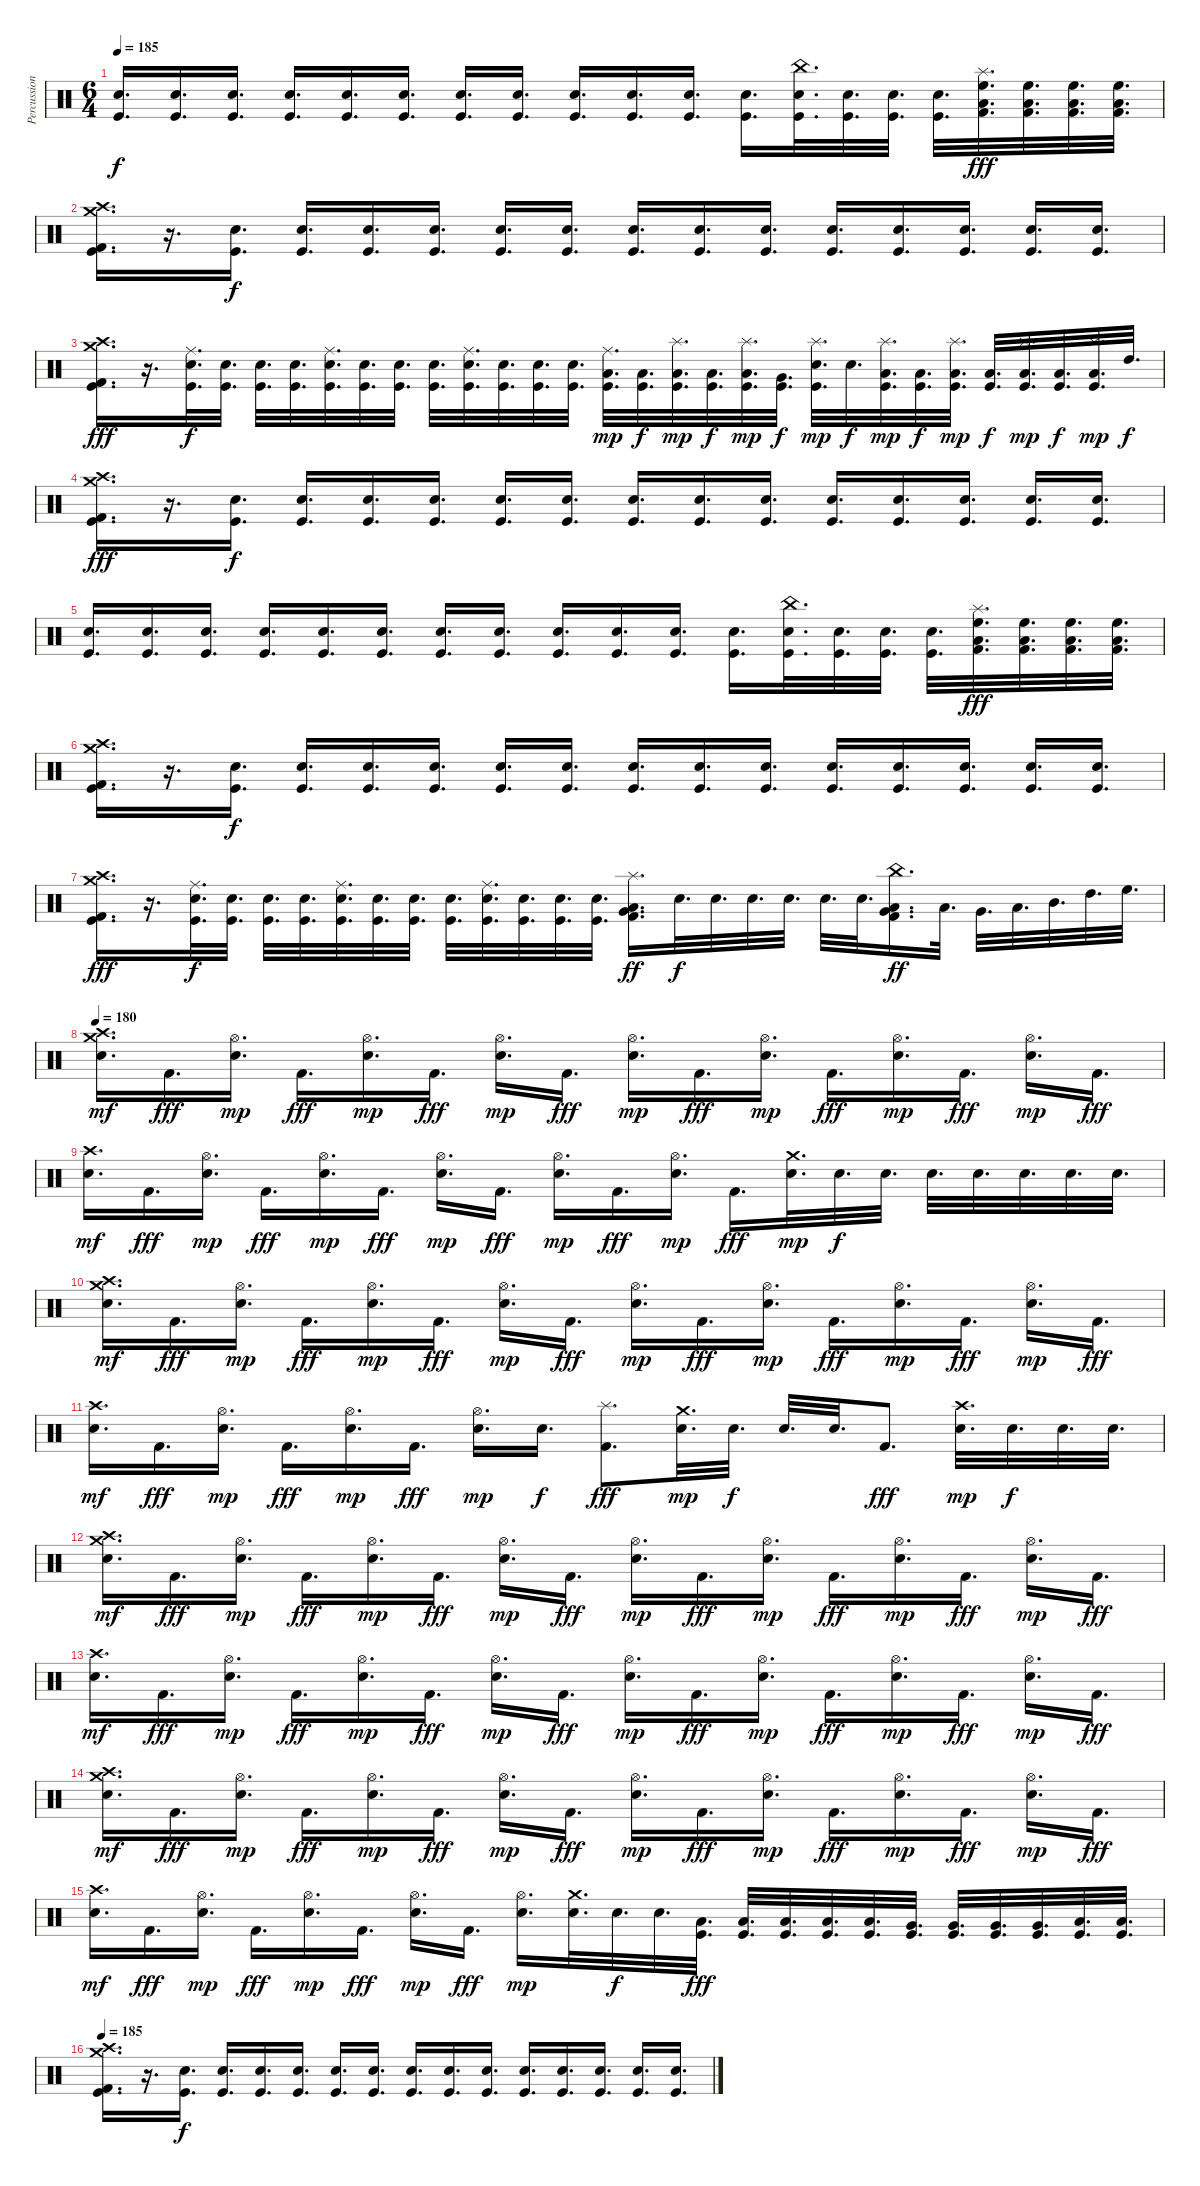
\track ("Percussions" "Percussion") {instrument percussion}
\staff {score}
\articulation defaults
\ts (6 4)
\tempo 185
\clef neutral
\ks c
("Electric Snare (hit)" "Kick (hit)").16{d dy f} ("Electric Snare (hit)" "Kick (hit)").16{d} ("Electric Snare (hit)" "Kick (hit)").16{d} ("Electric Snare (hit)" "Kick (hit)").16{d} ("Electric Snare (hit)" "Kick (hit)").16{d} ("Electric Snare (hit)" "Kick (hit)").16{d} ("Electric Snare (hit)" "Kick (hit)").16{d} ("Electric Snare (hit)" "Kick (hit)").16{d} ("Electric Snare (hit)" "Kick (hit)").16{d} ("Electric Snare (hit)" "Kick (hit)").16{d} ("Electric Snare (hit)" "Kick (hit)").16{d} ("Electric Snare (hit)" "Kick (hit)").16{d} ("China (hit)" "Electric Snare (hit)" "Kick (hit)").32{d} ("Electric Snare (hit)" "Kick (hit)").32{d} ("Electric Snare (hit)" "Kick (hit)").32{d} ("Electric Snare (hit)" "Kick (hit)").32{d} ("Splash (hit)" "Low Floor Tom (hit)" "High Floor Tom (hit)" "Kick (hit) 2").32{d dy fff} ("Low Floor Tom (hit)" "High Floor Tom (hit)" "Kick (hit) 2").32{d} ("Low Floor Tom (hit)" "High Floor Tom (hit)" "Kick (hit) 2").32{d} ("Low Floor Tom (hit)" "High Floor Tom (hit)" "Kick (hit) 2").32{d} |
("Crash high (hit)" "Crash medium (hit)" "Kick (hit)" "Kick (hit) 2").16{d} r.16{d} ("Electric Snare (hit)" "Kick (hit)").16{d dy f} ("Electric Snare (hit)" "Kick (hit)").16{d} ("Electric Snare (hit)" "Kick (hit)").16{d} ("Electric Snare (hit)" "Kick (hit)").16{d} ("Electric Snare (hit)" "Kick (hit)").16{d} ("Electric Snare (hit)" "Kick (hit)").16{d} ("Electric Snare (hit)" "Kick (hit)").16{d} ("Electric Snare (hit)" "Kick (hit)").16{d} ("Electric Snare (hit)" "Kick (hit)").16{d} ("Electric Snare (hit)" "Kick (hit)").16{d} ("Electric Snare (hit)" "Kick (hit)").16{d} ("Electric Snare (hit)" "Kick (hit)").16{d} ("Electric Snare (hit)" "Kick (hit)").16{d} ("Electric Snare (hit)" "Kick (hit)").16{d} |
("Crash high (hit)" "Crash medium (hit)" "Kick (hit)" "Kick (hit) 2").16{d dy fff} r.16{d} ("Ride (middle)" "Electric Snare (hit)" "Kick (hit)").32{d dy f} ("Electric Snare (hit)" "Kick (hit)").32{d} ("Electric Snare (hit)" "Kick (hit)").32{d} ("Electric Snare (hit)" "Kick (hit)").32{d} ("Ride (middle)" "Electric Snare (hit)" "Kick (hit)").32{d} ("Electric Snare (hit)" "Kick (hit)").32{d} ("Electric Snare (hit)" "Kick (hit)").32{d} ("Electric Snare (hit)" "Kick (hit)").32{d} ("Ride (middle)" "Electric Snare (hit)" "Kick (hit)").32{d} ("Electric Snare (hit)" "Kick (hit)").32{d} ("Electric Snare (hit)" "Kick (hit)").32{d} ("Electric Snare (hit)" "Kick (hit)").32{d} ("Ride (middle)" "Low Floor Tom (hit)" "Kick (hit)").32{d dy mp} ("Low Floor Tom (hit)" "Kick (hit)").32{d dy f} ("Splash (hit)" "Low Floor Tom (hit)" "Kick (hit)").32{d dy mp} ("Low Floor Tom (hit)" "Kick (hit)").32{d dy f} ("Splash (hit)" "Low Floor Tom (hit)" "Kick (hit)").32{d dy mp} ("Very Low Tom (hit)" "Kick (hit)").32{d dy f} ("Splash (hit)" "Electric Snare (hit)" "Kick (hit)").32{d dy mp} "Electric Snare (hit)".32{d dy f} ("Splash (hit)" "Low Tom (hit)" "Kick (hit)").32{d dy mp} ("Low Tom (hit)" "Kick (hit)").32{d dy f} ("Splash (hit)" "Low Tom (hit)" "Kick (hit)").32{d dy mp} ("Low Tom (hit)" "Kick (hit)").32{d dy f} ("Splash (hit)" "Low Tom (hit)" "Kick (hit)").32{d dy mp} ("Low Tom (hit)" "Kick (hit)").32{d dy f} ("Splash (hit)" "Low Tom (hit)" "Kick (hit)").32{d dy mp} "High Tom (hit)".32{d dy f} |
("Crash high (hit)" "Crash medium (hit)" "Kick (hit)" "Kick (hit) 2").16{d dy fff} r.16{d} ("Electric Snare (hit)" "Kick (hit)").16{d dy f} ("Electric Snare (hit)" "Kick (hit)").16{d} ("Electric Snare (hit)" "Kick (hit)").16{d} ("Electric Snare (hit)" "Kick (hit)").16{d} ("Electric Snare (hit)" "Kick (hit)").16{d} ("Electric Snare (hit)" "Kick (hit)").16{d} ("Electric Snare (hit)" "Kick (hit)").16{d} ("Electric Snare (hit)" "Kick (hit)").16{d} ("Electric Snare (hit)" "Kick (hit)").16{d} ("Electric Snare (hit)" "Kick (hit)").16{d} ("Electric Snare (hit)" "Kick (hit)").16{d} ("Electric Snare (hit)" "Kick (hit)").16{d} ("Electric Snare (hit)" "Kick (hit)").16{d} ("Electric Snare (hit)" "Kick (hit)").16{d} |
("Electric Snare (hit)" "Kick (hit)").16{d} ("Electric Snare (hit)" "Kick (hit)").16{d} ("Electric Snare (hit)" "Kick (hit)").16{d} ("Electric Snare (hit)" "Kick (hit)").16{d} ("Electric Snare (hit)" "Kick (hit)").16{d} ("Electric Snare (hit)" "Kick (hit)").16{d} ("Electric Snare (hit)" "Kick (hit)").16{d} ("Electric Snare (hit)" "Kick (hit)").16{d} ("Electric Snare (hit)" "Kick (hit)").16{d} ("Electric Snare (hit)" "Kick (hit)").16{d} ("Electric Snare (hit)" "Kick (hit)").16{d} ("Electric Snare (hit)" "Kick (hit)").16{d} ("China (hit)" "Electric Snare (hit)" "Kick (hit)").32{d} ("Electric Snare (hit)" "Kick (hit)").32{d} ("Electric Snare (hit)" "Kick (hit)").32{d} ("Electric Snare (hit)" "Kick (hit)").32{d} ("Splash (hit)" "Low Floor Tom (hit)" "High Floor Tom (hit)" "Kick (hit) 2").32{d dy fff} ("Low Floor Tom (hit)" "High Floor Tom (hit)" "Kick (hit) 2").32{d} ("Low Floor Tom (hit)" "High Floor Tom (hit)" "Kick (hit) 2").32{d} ("Low Floor Tom (hit)" "High Floor Tom (hit)" "Kick (hit) 2").32{d} |
("Crash high (hit)" "Crash medium (hit)" "Kick (hit)" "Kick (hit) 2").16{d} r.16{d} ("Electric Snare (hit)" "Kick (hit)").16{d dy f} ("Electric Snare (hit)" "Kick (hit)").16{d} ("Electric Snare (hit)" "Kick (hit)").16{d} ("Electric Snare (hit)" "Kick (hit)").16{d} ("Electric Snare (hit)" "Kick (hit)").16{d} ("Electric Snare (hit)" "Kick (hit)").16{d} ("Electric Snare (hit)" "Kick (hit)").16{d} ("Electric Snare (hit)" "Kick (hit)").16{d} ("Electric Snare (hit)" "Kick (hit)").16{d} ("Electric Snare (hit)" "Kick (hit)").16{d} ("Electric Snare (hit)" "Kick (hit)").16{d} ("Electric Snare (hit)" "Kick (hit)").16{d} ("Electric Snare (hit)" "Kick (hit)").16{d} ("Electric Snare (hit)" "Kick (hit)").16{d} |
("Crash high (hit)" "Crash medium (hit)" "Kick (hit)" "Kick (hit) 2").16{d dy fff} r.16{d} ("Ride (middle)" "Electric Snare (hit)" "Kick (hit)").32{d dy f} ("Electric Snare (hit)" "Kick (hit)").32{d} ("Electric Snare (hit)" "Kick (hit)").32{d} ("Electric Snare (hit)" "Kick (hit)").32{d} ("Ride (middle)" "Electric Snare (hit)" "Kick (hit)").32{d} ("Electric Snare (hit)" "Kick (hit)").32{d} ("Electric Snare (hit)" "Kick (hit)").32{d} ("Electric Snare (hit)" "Kick (hit)").32{d} ("Ride (middle)" "Electric Snare (hit)" "Kick (hit)").32{d} ("Electric Snare (hit)" "Kick (hit)").32{d} ("Electric Snare (hit)" "Kick (hit)").32{d} ("Electric Snare (hit)" "Kick (hit)").32{d} ("Splash (hit)" "Low Floor Tom (hit)" "Very Low Tom (hit)" "Kick (hit) 2").16{d dy ff} "Electric Snare (hit)".32{d dy f} "Electric Snare (hit)".32{d} "Electric Snare (hit)".32{d} "Electric Snare (hit)".32{d} "Electric Snare (hit)".32{d} "Electric Snare (hit)".32{d} ("China (hit)" "Low Floor Tom (hit)" "Very Low Tom (hit)" "Kick (hit) 2").16{d dy ff} "Low Floor Tom (hit)".32{d} "Very Low Tom (hit)".32{d} "Low Tom (hit)".32{d} "Mid Tom (hit)".32{d} "High Tom (hit)".32{d} "High Floor Tom (hit)".32{d} |
\tempo 180
("Crash medium (hit)" "Crash high (hit)" "Electric Snare (hit)").16{d dy mf} "Kick (hit) 2".16{d dy fff} ("Hi-Hat (open)" "Electric Snare (hit)").16{d dy mp} "Kick (hit) 2".16{d dy fff} ("Hi-Hat (open)" "Electric Snare (hit)").16{d dy mp} "Kick (hit) 2".16{d dy fff} ("Hi-Hat (open)" "Electric Snare (hit)").16{d dy mp} "Kick (hit) 2".16{d dy fff} ("Hi-Hat (open)" "Electric Snare (hit)").16{d dy mp} "Kick (hit) 2".16{d dy fff} ("Hi-Hat (open)" "Electric Snare (hit)").16{d dy mp} "Kick (hit) 2".16{d dy fff} ("Hi-Hat (open)" "Electric Snare (hit)").16{d dy mp} "Kick (hit) 2".16{d dy fff} ("Hi-Hat (open)" "Electric Snare (hit)").16{d dy mp} "Kick (hit) 2".16{d dy fff} |
("Crash high (hit)" "Electric Snare (hit)").16{d dy mf} "Kick (hit) 2".16{d dy fff} ("Hi-Hat (open)" "Electric Snare (hit)").16{d dy mp} "Kick (hit) 2".16{d dy fff} ("Hi-Hat (open)" "Electric Snare (hit)").16{d dy mp} "Kick (hit) 2".16{d dy fff} ("Hi-Hat (open)" "Electric Snare (hit)").16{d dy mp} "Kick (hit) 2".16{d dy fff} ("Hi-Hat (open)" "Electric Snare (hit)").16{d dy mp} "Kick (hit) 2".16{d dy fff} ("Hi-Hat (open)" "Electric Snare (hit)").16{d dy mp} "Kick (hit) 2".16{d dy fff} ("Crash medium (hit)" "Electric Snare (hit)").32{d dy mp} "Electric Snare (hit)".32{d dy f} "Electric Snare (hit)".32{d} "Electric Snare (hit)".32{d} "Electric Snare (hit)".32{d} "Electric Snare (hit)".32{d} "Electric Snare (hit)".32{d} "Electric Snare (hit)".32{d} |
("Crash medium (hit)" "Crash high (hit)" "Electric Snare (hit)").16{d dy mf} "Kick (hit) 2".16{d dy fff} ("Hi-Hat (open)" "Electric Snare (hit)").16{d dy mp} "Kick (hit) 2".16{d dy fff} ("Hi-Hat (open)" "Electric Snare (hit)").16{d dy mp} "Kick (hit) 2".16{d dy fff} ("Hi-Hat (open)" "Electric Snare (hit)").16{d dy mp} "Kick (hit) 2".16{d dy fff} ("Hi-Hat (open)" "Electric Snare (hit)").16{d dy mp} "Kick (hit) 2".16{d dy fff} ("Hi-Hat (open)" "Electric Snare (hit)").16{d dy mp} "Kick (hit) 2".16{d dy fff} ("Hi-Hat (open)" "Electric Snare (hit)").16{d dy mp} "Kick (hit) 2".16{d dy fff} ("Hi-Hat (open)" "Electric Snare (hit)").16{d dy mp} "Kick (hit) 2".16{d dy fff} |
("Crash high (hit)" "Electric Snare (hit)").16{d dy mf} "Kick (hit) 2".16{d dy fff} ("Hi-Hat (open)" "Electric Snare (hit)").16{d dy mp} "Kick (hit) 2".16{d dy fff} ("Hi-Hat (open)" "Electric Snare (hit)").16{d dy mp} "Kick (hit) 2".16{d dy fff} ("Hi-Hat (open)" "Electric Snare (hit)").16{d dy mp} "Electric Snare (hit)".16{d dy f} ("Splash (hit)" "Kick (hit) 2").8{d dy fff} ("Crash medium (hit)" "Electric Snare (hit)").32{d dy mp} "Electric Snare (hit)".32{d dy f} "Electric Snare (hit)".32{d} "Electric Snare (hit)".32{d} "Kick (hit) 2".8{d dy fff} ("Crash high (hit)" "Electric Snare (hit)").32{d dy mp} "Electric Snare (hit)".32{d dy f} "Electric Snare (hit)".32{d} "Electric Snare (hit)".32{d} |
("Crash medium (hit)" "Crash high (hit)" "Electric Snare (hit)").16{d dy mf} "Kick (hit) 2".16{d dy fff} ("Hi-Hat (open)" "Electric Snare (hit)").16{d dy mp} "Kick (hit) 2".16{d dy fff} ("Hi-Hat (open)" "Electric Snare (hit)").16{d dy mp} "Kick (hit) 2".16{d dy fff} ("Hi-Hat (open)" "Electric Snare (hit)").16{d dy mp} "Kick (hit) 2".16{d dy fff} ("Hi-Hat (open)" "Electric Snare (hit)").16{d dy mp} "Kick (hit) 2".16{d dy fff} ("Hi-Hat (open)" "Electric Snare (hit)").16{d dy mp} "Kick (hit) 2".16{d dy fff} ("Hi-Hat (open)" "Electric Snare (hit)").16{d dy mp} "Kick (hit) 2".16{d dy fff} ("Hi-Hat (open)" "Electric Snare (hit)").16{d dy mp} "Kick (hit) 2".16{d dy fff} |
("Crash high (hit)" "Electric Snare (hit)").16{d dy mf} "Kick (hit) 2".16{d dy fff} ("Hi-Hat (open)" "Electric Snare (hit)").16{d dy mp} "Kick (hit) 2".16{d dy fff} ("Hi-Hat (open)" "Electric Snare (hit)").16{d dy mp} "Kick (hit) 2".16{d dy fff} ("Hi-Hat (open)" "Electric Snare (hit)").16{d dy mp} "Kick (hit) 2".16{d dy fff} ("Hi-Hat (open)" "Electric Snare (hit)").16{d dy mp} "Kick (hit) 2".16{d dy fff} ("Hi-Hat (open)" "Electric Snare (hit)").16{d dy mp} "Kick (hit) 2".16{d dy fff} ("Hi-Hat (open)" "Electric Snare (hit)").16{d dy mp} "Kick (hit) 2".16{d dy fff} ("Hi-Hat (open)" "Electric Snare (hit)").16{d dy mp} "Kick (hit) 2".16{d dy fff} |
("Crash medium (hit)" "Crash high (hit)" "Electric Snare (hit)").16{d dy mf} "Kick (hit) 2".16{d dy fff} ("Hi-Hat (open)" "Electric Snare (hit)").16{d dy mp} "Kick (hit) 2".16{d dy fff} ("Hi-Hat (open)" "Electric Snare (hit)").16{d dy mp} "Kick (hit) 2".16{d dy fff} ("Hi-Hat (open)" "Electric Snare (hit)").16{d dy mp} "Kick (hit) 2".16{d dy fff} ("Hi-Hat (open)" "Electric Snare (hit)").16{d dy mp} "Kick (hit) 2".16{d dy fff} ("Hi-Hat (open)" "Electric Snare (hit)").16{d dy mp} "Kick (hit) 2".16{d dy fff} ("Hi-Hat (open)" "Electric Snare (hit)").16{d dy mp} "Kick (hit) 2".16{d dy fff} ("Hi-Hat (open)" "Electric Snare (hit)").16{d dy mp} "Kick (hit) 2".16{d dy fff} |
("Crash high (hit)" "Electric Snare (hit)").16{d dy mf} "Kick (hit) 2".16{d dy fff} ("Hi-Hat (open)" "Electric Snare (hit)").16{d dy mp} "Kick (hit) 2".16{d dy fff} ("Hi-Hat (open)" "Electric Snare (hit)").16{d dy mp} "Kick (hit) 2".16{d dy fff} ("Hi-Hat (open)" "Electric Snare (hit)").16{d dy mp} "Kick (hit) 2".16{d dy fff} ("Hi-Hat (open)" "Electric Snare (hit)").16{d dy mp} ("Crash medium (hit)" "Electric Snare (hit)").32{d} "Electric Snare (hit)".32{d dy f} "Electric Snare (hit)".32{d} ("Low Floor Tom (hit)" "Kick (hit)").32{d dy fff} ("Low Floor Tom (hit)" "Kick (hit)").32{d} ("Low Floor Tom (hit)" "Kick (hit)").32{d} ("Low Floor Tom (hit)" "Kick (hit)").32{d} ("Low Floor Tom (hit)" "Kick (hit)").32{d} ("Very Low Tom (hit)" "Kick (hit)").32{d} ("Very Low Tom (hit)" "Kick (hit)").32{d} ("Very Low Tom (hit)" "Kick (hit)").32{d} ("Very Low Tom (hit)" "Kick (hit)").32{d} ("Low Tom (hit)" "Kick (hit)").32{d} ("Low Tom (hit)" "Kick (hit)").32{d} |
\tempo 185
("Crash high (hit)" "Crash medium (hit)" "Kick (hit)" "Kick (hit) 2").16{d} r.16{d} ("Electric Snare (hit)" "Kick (hit)").16{d dy f} ("Electric Snare (hit)" "Kick (hit)").16{d} ("Electric Snare (hit)" "Kick (hit)").16{d} ("Electric Snare (hit)" "Kick (hit)").16{d} ("Electric Snare (hit)" "Kick (hit)").16{d} ("Electric Snare (hit)" "Kick (hit)").16{d} ("Electric Snare (hit)" "Kick (hit)").16{d} ("Electric Snare (hit)" "Kick (hit)").16{d} ("Electric Snare (hit)" "Kick (hit)").16{d} ("Electric Snare (hit)" "Kick (hit)").16{d} ("Electric Snare (hit)" "Kick (hit)").16{d} ("Electric Snare (hit)" "Kick (hit)").16{d} ("Electric Snare (hit)" "Kick (hit)").16{d} ("Electric Snare (hit)" "Kick (hit)").16{d}
